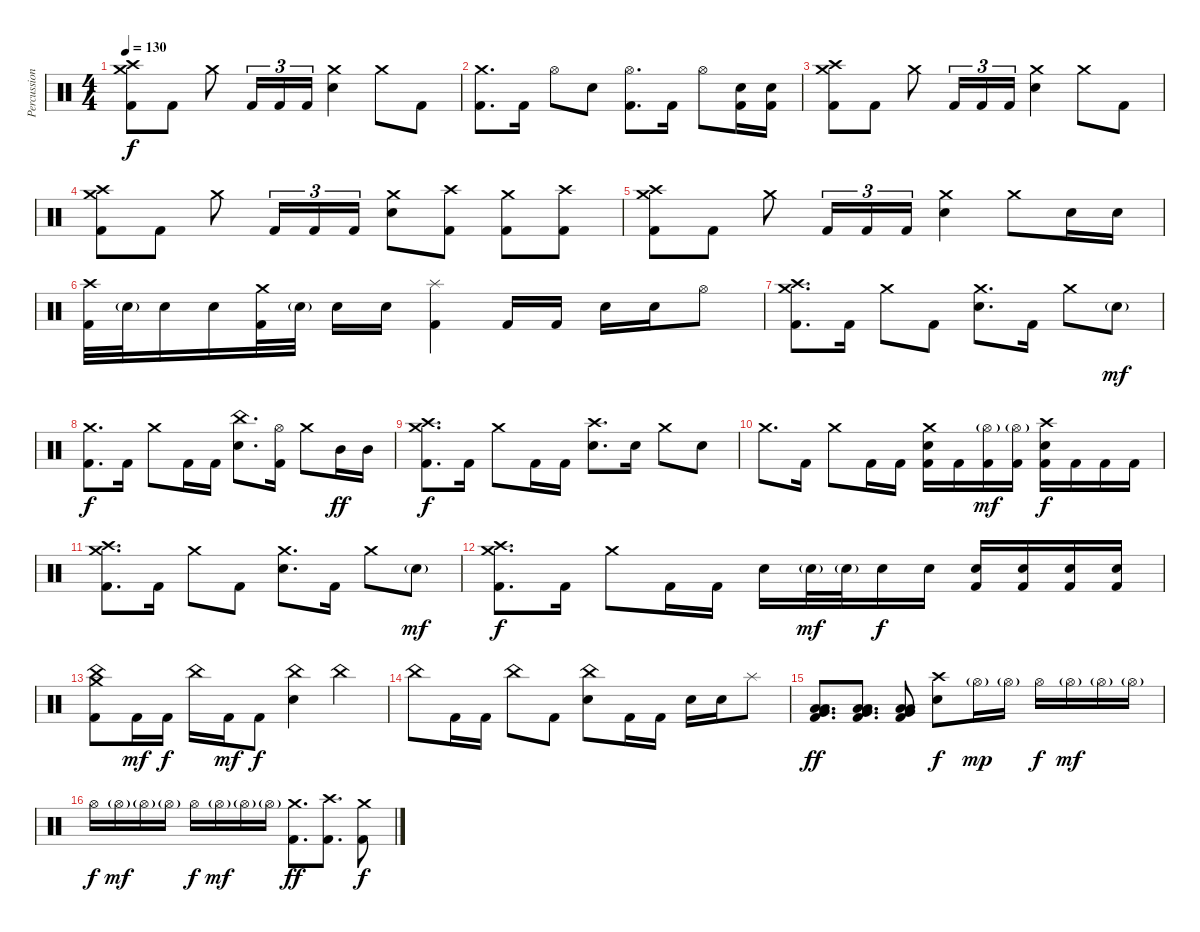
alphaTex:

\track ("Percussion" "Percussion") {instrument percussion}
\staff {score}
\articulation defaults
\ts (4 4)
\tempo 130
\clef neutral
\ks c
("Crash medium (hit)" "Crash high (hit)" "Kick (hit) 2").8{dy f} "Kick (hit) 2".8 "Crash medium (hit)".8 "Kick (hit) 2".16{tu (3 2)} "Kick (hit) 2".16{tu (3 2)} "Kick (hit) 2".16{tu (3 2)} ("Crash medium (hit)" "Electric Snare (hit)").4 "Crash medium (hit)".8 "Kick (hit) 2".8 |
("Crash medium (hit)" "Kick (hit) 2").8{d} "Kick (hit) 2".16 "Hi-Hat (open)".8 "Electric Snare (hit)".8 ("Hi-Hat (open)" "Kick (hit) 2").8{d} "Kick (hit) 2".16 "Hi-Hat (open)".8 ("Electric Snare (hit)" "Kick (hit) 2").16 ("Electric Snare (hit)" "Kick (hit) 2").16 |
("Crash medium (hit)" "Crash high (hit)" "Kick (hit) 2").8 "Kick (hit) 2".8 "Crash medium (hit)".8 "Kick (hit) 2".16{tu (3 2)} "Kick (hit) 2".16{tu (3 2)} "Kick (hit) 2".16{tu (3 2)} ("Crash medium (hit)" "Electric Snare (hit)").4 "Crash medium (hit)".8 "Kick (hit) 2".8 |
("Crash medium (hit)" "Crash high (hit)" "Kick (hit) 2").8 "Kick (hit) 2".8 "Crash medium (hit)".8 "Kick (hit) 2".16{tu (3 2)} "Kick (hit) 2".16{tu (3 2)} "Kick (hit) 2".16{tu (3 2)} ("Crash medium (hit)" "Electric Snare (hit)").8 ("Crash high (hit)" "Kick (hit) 2").8 ("Crash medium (hit)" "Kick (hit) 2").8 ("Crash high (hit)" "Kick (hit) 2").8 |
("Crash medium (hit)" "Crash high (hit)" "Kick (hit) 2").8 "Kick (hit) 2".8 "Crash medium (hit)".8 "Kick (hit) 2".16{tu (3 2)} "Kick (hit) 2".16{tu (3 2)} "Kick (hit) 2".16{tu (3 2)} ("Crash medium (hit)" "Electric Snare (hit)").4 "Crash medium (hit)".8 "Electric Snare (hit)".16 "Electric Snare (hit)".16 |
("Crash high (hit)" "Kick (hit) 2").32 "Electric Snare (hit)"{g}.32 "Electric Snare (hit)".16 "Electric Snare (hit)".16 ("Crash medium (hit)" "Kick (hit) 2").32 "Electric Snare (hit)"{g}.32 "Electric Snare (hit)".16 "Electric Snare (hit)".16 ("Splash (hit)" "Kick (hit) 2").4 "Kick (hit) 2".16 "Kick (hit) 2".16 "Electric Snare (hit)".16 "Electric Snare (hit)".16 "Hi-Hat (open)".8 |
("Crash high (hit)" "Crash medium (hit)" "Kick (hit) 2").8{d} "Kick (hit) 2".16 "Crash medium (hit)".8 "Kick (hit) 2".8 ("Crash medium (hit)" "Electric Snare (hit)").8{d} "Kick (hit) 2".16 "Crash medium (hit)".8 "Electric Snare (hit)"{g}.8{dy mf} |
("Crash medium (hit)" "Kick (hit) 2").8{d dy f} "Kick (hit) 2".16 "Crash medium (hit)".8 "Kick (hit) 2".16 "Kick (hit) 2".16 ("China (hit)" "Electric Snare (hit)").8{d} ("Hi-Hat (open)" "Kick (hit) 2").16 "Crash medium (hit)".8 "Mid Tom (hit)".16{dy ff} "Mid Tom (hit)".16 |
("Crash high (hit)" "Crash medium (hit)" "Kick (hit) 2").8{d dy f} "Kick (hit) 2".16 "Crash medium (hit)".8 "Kick (hit) 2".16 "Kick (hit) 2".16 ("Crash high (hit)" "Electric Snare (hit)").8{d} "Electric Snare (hit)".16 "Crash medium (hit)".8 "Electric Snare (hit)".8 |
"Crash medium (hit)".8{d} "Kick (hit) 2".16 "Crash medium (hit)".8 "Kick (hit) 2".16 "Kick (hit) 2".16 ("Crash medium (hit)" "Electric Snare (hit)" "Kick (hit) 2").16 "Kick (hit) 2".16 ("Hi-Hat (open)"{g} "Kick (hit) 2").16{dy mf} ("Hi-Hat (open)"{g} "Kick (hit) 2").16 ("Crash high (hit)" "Electric Snare (hit)" "Kick (hit) 2").16{dy f} "Kick (hit) 2".16 "Kick (hit) 2".16 "Kick (hit) 2".16 |
("Crash high (hit)" "Crash medium (hit)" "Kick (hit) 2").8{d} "Kick (hit) 2".16 "Crash medium (hit)".8 "Kick (hit) 2".8 ("Crash medium (hit)" "Electric Snare (hit)").8{d} "Kick (hit) 2".16 "Crash medium (hit)".8 "Electric Snare (hit)"{g}.8{dy mf} |
("Crash high (hit)" "Crash medium (hit)" "Kick (hit) 2").8{d dy f} "Kick (hit) 2".16 "Crash medium (hit)".8 "Kick (hit) 2".16 "Kick (hit) 2".16 "Electric Snare (hit)".16 "Electric Snare (hit)"{g}.32{dy mf} "Electric Snare (hit)"{g}.32 "Electric Snare (hit)".16{dy f} "Electric Snare (hit)".16 ("Electric Snare (hit)" "Kick (hit) 2").16 ("Electric Snare (hit)" "Kick (hit) 2").16 ("Electric Snare (hit)" "Kick (hit) 2").16 ("Electric Snare (hit)" "Kick (hit) 2").16 |
("China (hit)" "Crash medium (hit)" "Kick (hit) 2").8 "Kick (hit) 2".16{dy mf} "Kick (hit) 2".16{dy f} "China (hit)".16 "Kick (hit) 2".16{dy mf} "Kick (hit) 2".8{dy f} ("China (hit)" "Electric Snare (hit)").4 "China (hit)".4 |
"China (hit)".8 "Kick (hit) 2".16 "Kick (hit) 2".16 "China (hit)".8 "Kick (hit) 2".8 ("China (hit)" "Electric Snare (hit)").8 "Kick (hit) 2".16 "Kick (hit) 2".16 "Electric Snare (hit)".16 "Electric Snare (hit)".16 "Splash (hit)".8 |
("Low Tom (hit)" "Very Low Tom (hit)" "Low Floor Tom (hit)" "Kick (hit) 2").8{d dy ff} ("Low Tom (hit)" "Very Low Tom (hit)" "Low Floor Tom (hit)" "Kick (hit) 2").8{d} ("Low Tom (hit)" "Very Low Tom (hit)" "Low Floor Tom (hit)" "Kick (hit) 2").8 ("Crash high (hit)" "Electric Snare (hit)").8{dy f} "Hi-Hat (open)"{g}.16{dy mp} "Hi-Hat (open)"{g}.16 "Hi-Hat (open)".16{dy f} "Hi-Hat (open)"{g}.16{dy mf} "Hi-Hat (open)"{g}.16 "Hi-Hat (open)"{g}.16 |
"Hi-Hat (open)".16{dy f} "Hi-Hat (open)"{g}.16{dy mf} "Hi-Hat (open)"{g}.16 "Hi-Hat (open)"{g}.16 "Hi-Hat (open)".16{dy f} "Hi-Hat (open)"{g}.16{dy mf} "Hi-Hat (open)"{g}.16 "Hi-Hat (open)"{g}.16 ("Crash medium (hit)" "Kick (hit) 2").8{d dy ff} ("Crash high (hit)" "Kick (hit) 2").8{d} ("Crash medium (hit)" "Kick (hit) 2").8{dy f}
